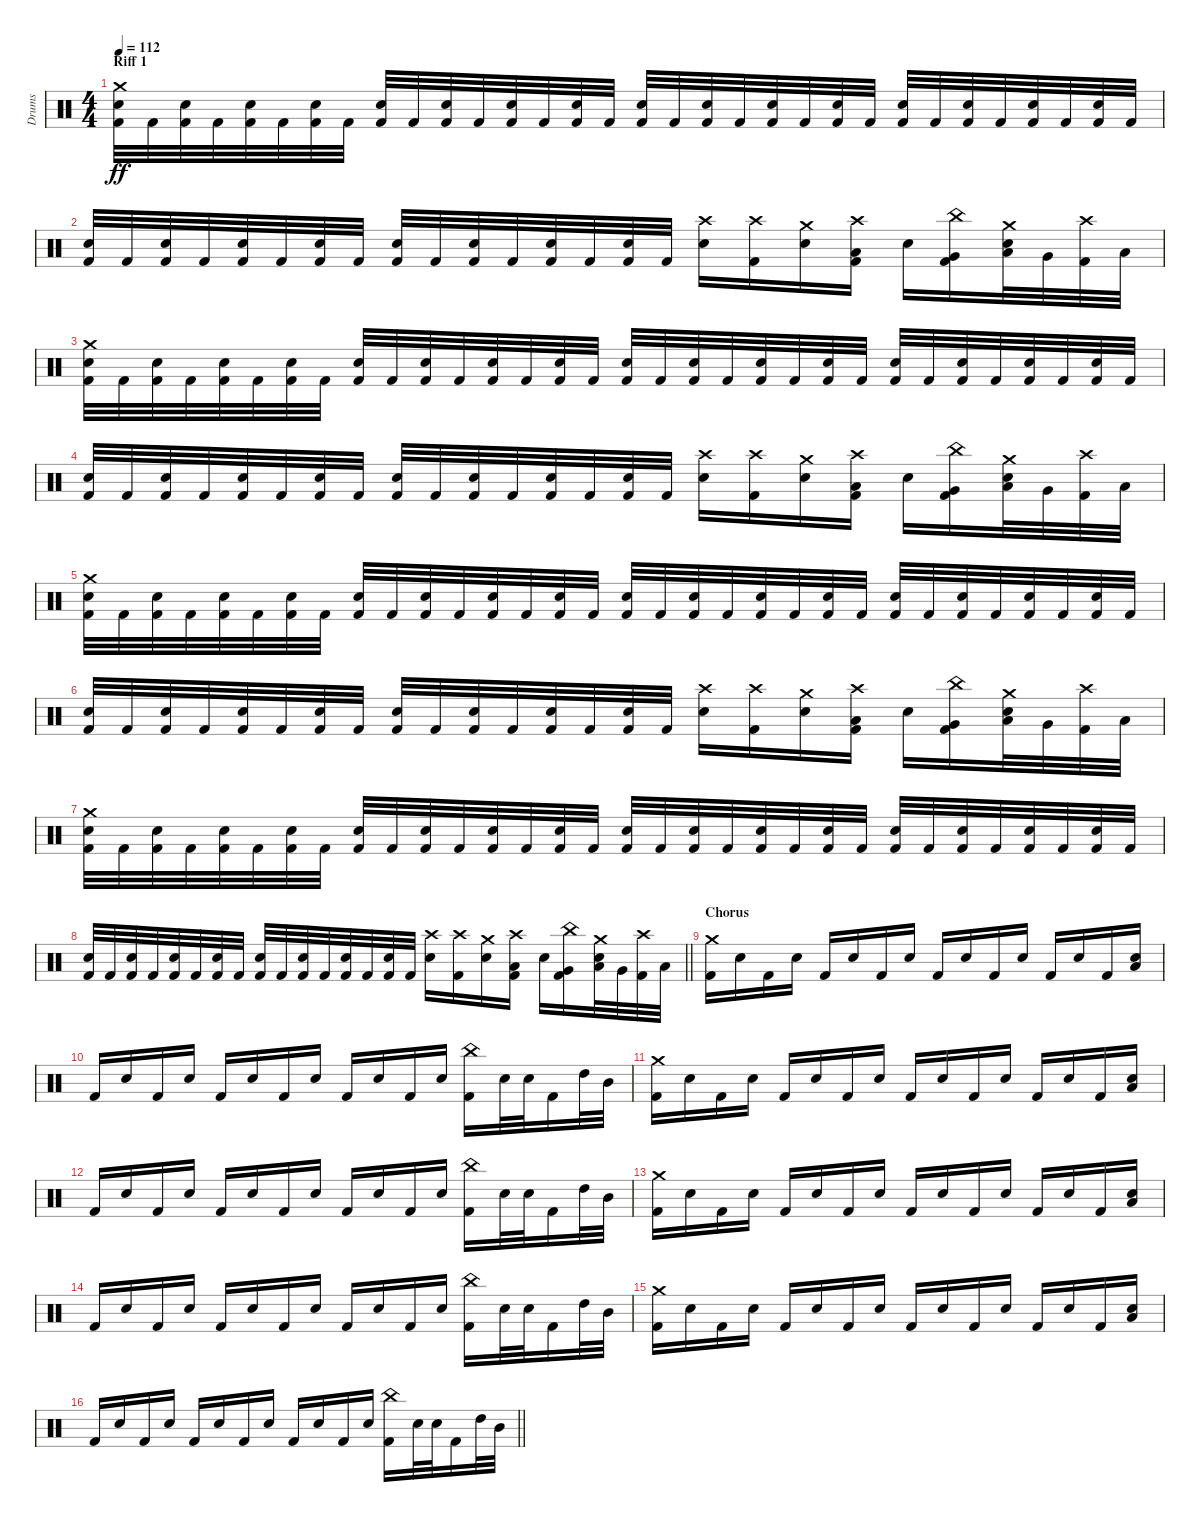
\track ("Drums" "Drums") {instrument percussion}
\staff {score}
\articulation defaults
\ts (4 4)
\section ("" "Riff 1")
\tempo 112
\clef neutral
\ks c
("Crash medium (hit)" "Kick (hit) 2" "Snare (hit) 2").32{dy ff} "Kick (hit) 2".32 ("Kick (hit) 2" "Snare (hit) 2").32 "Kick (hit) 2".32 ("Kick (hit) 2" "Snare (hit) 2").32 "Kick (hit) 2".32 ("Kick (hit) 2" "Snare (hit) 2").32 "Kick (hit) 2".32 ("Kick (hit) 2" "Snare (hit) 2").32 "Kick (hit) 2".32 ("Kick (hit) 2" "Snare (hit) 2").32 "Kick (hit) 2".32 ("Kick (hit) 2" "Snare (hit) 2").32 "Kick (hit) 2".32 ("Kick (hit) 2" "Snare (hit) 2").32 "Kick (hit) 2".32 ("Kick (hit) 2" "Snare (hit) 2").32 "Kick (hit) 2".32 ("Kick (hit) 2" "Snare (hit) 2").32 "Kick (hit) 2".32 ("Kick (hit) 2" "Snare (hit) 2").32 "Kick (hit) 2".32 ("Kick (hit) 2" "Snare (hit) 2").32 "Kick (hit) 2".32 ("Kick (hit) 2" "Snare (hit) 2").32 "Kick (hit) 2".32 ("Kick (hit) 2" "Snare (hit) 2").32 "Kick (hit) 2".32 ("Kick (hit) 2" "Snare (hit) 2").32 "Kick (hit) 2".32 ("Kick (hit) 2" "Snare (hit) 2").32 "Kick (hit) 2".32 |
("Kick (hit) 2" "Snare (hit) 2").32 "Kick (hit) 2".32 ("Kick (hit) 2" "Snare (hit) 2").32 "Kick (hit) 2".32 ("Kick (hit) 2" "Snare (hit) 2").32 "Kick (hit) 2".32 ("Kick (hit) 2" "Snare (hit) 2").32 "Kick (hit) 2".32 ("Kick (hit) 2" "Snare (hit) 2").32 "Kick (hit) 2".32 ("Kick (hit) 2" "Snare (hit) 2").32 "Kick (hit) 2".32 ("Kick (hit) 2" "Snare (hit) 2").32 "Kick (hit) 2".32 ("Kick (hit) 2" "Snare (hit) 2").32 "Kick (hit) 2".32 ("Crash high (hit)" "Snare (hit) 2").16 ("Crash high (hit)" "Kick (hit) 2").16 ("Crash medium (hit)" "Snare (hit) 2").16 ("Crash high (hit)" "Kick (hit) 2" "Low Tom (hit)").16 "Snare (hit) 2".16 ("China (hit)" "Kick (hit) 2" "Very Low Tom (hit)").16 ("Crash medium (hit)" "Snare (hit) 2" "Low Tom (hit)").32 "Very Low Tom (hit)".32 ("Crash high (hit)" "Kick (hit) 2").32 "Low Tom (hit)".32 |
("Crash medium (hit)" "Kick (hit) 2" "Snare (hit) 2").32 "Kick (hit) 2".32 ("Kick (hit) 2" "Snare (hit) 2").32 "Kick (hit) 2".32 ("Kick (hit) 2" "Snare (hit) 2").32 "Kick (hit) 2".32 ("Kick (hit) 2" "Snare (hit) 2").32 "Kick (hit) 2".32 ("Kick (hit) 2" "Snare (hit) 2").32 "Kick (hit) 2".32 ("Kick (hit) 2" "Snare (hit) 2").32 "Kick (hit) 2".32 ("Kick (hit) 2" "Snare (hit) 2").32 "Kick (hit) 2".32 ("Kick (hit) 2" "Snare (hit) 2").32 "Kick (hit) 2".32 ("Kick (hit) 2" "Snare (hit) 2").32 "Kick (hit) 2".32 ("Kick (hit) 2" "Snare (hit) 2").32 "Kick (hit) 2".32 ("Kick (hit) 2" "Snare (hit) 2").32 "Kick (hit) 2".32 ("Kick (hit) 2" "Snare (hit) 2").32 "Kick (hit) 2".32 ("Kick (hit) 2" "Snare (hit) 2").32 "Kick (hit) 2".32 ("Kick (hit) 2" "Snare (hit) 2").32 "Kick (hit) 2".32 ("Kick (hit) 2" "Snare (hit) 2").32 "Kick (hit) 2".32 ("Kick (hit) 2" "Snare (hit) 2").32 "Kick (hit) 2".32 |
("Kick (hit) 2" "Snare (hit) 2").32 "Kick (hit) 2".32 ("Kick (hit) 2" "Snare (hit) 2").32 "Kick (hit) 2".32 ("Kick (hit) 2" "Snare (hit) 2").32 "Kick (hit) 2".32 ("Kick (hit) 2" "Snare (hit) 2").32 "Kick (hit) 2".32 ("Kick (hit) 2" "Snare (hit) 2").32 "Kick (hit) 2".32 ("Kick (hit) 2" "Snare (hit) 2").32 "Kick (hit) 2".32 ("Kick (hit) 2" "Snare (hit) 2").32 "Kick (hit) 2".32 ("Kick (hit) 2" "Snare (hit) 2").32 "Kick (hit) 2".32 ("Crash high (hit)" "Snare (hit) 2").16 ("Crash high (hit)" "Kick (hit) 2").16 ("Crash medium (hit)" "Snare (hit) 2").16 ("Crash high (hit)" "Kick (hit) 2" "Low Tom (hit)").16 "Snare (hit) 2".16 ("China (hit)" "Kick (hit) 2" "Very Low Tom (hit)").16 ("Crash medium (hit)" "Snare (hit) 2" "Low Tom (hit)").32 "Very Low Tom (hit)".32 ("Crash high (hit)" "Kick (hit) 2").32 "Low Tom (hit)".32 |
("Crash medium (hit)" "Kick (hit) 2" "Snare (hit) 2").32 "Kick (hit) 2".32 ("Kick (hit) 2" "Snare (hit) 2").32 "Kick (hit) 2".32 ("Kick (hit) 2" "Snare (hit) 2").32 "Kick (hit) 2".32 ("Kick (hit) 2" "Snare (hit) 2").32 "Kick (hit) 2".32 ("Kick (hit) 2" "Snare (hit) 2").32 "Kick (hit) 2".32 ("Kick (hit) 2" "Snare (hit) 2").32 "Kick (hit) 2".32 ("Kick (hit) 2" "Snare (hit) 2").32 "Kick (hit) 2".32 ("Kick (hit) 2" "Snare (hit) 2").32 "Kick (hit) 2".32 ("Kick (hit) 2" "Snare (hit) 2").32 "Kick (hit) 2".32 ("Kick (hit) 2" "Snare (hit) 2").32 "Kick (hit) 2".32 ("Kick (hit) 2" "Snare (hit) 2").32 "Kick (hit) 2".32 ("Kick (hit) 2" "Snare (hit) 2").32 "Kick (hit) 2".32 ("Kick (hit) 2" "Snare (hit) 2").32 "Kick (hit) 2".32 ("Kick (hit) 2" "Snare (hit) 2").32 "Kick (hit) 2".32 ("Kick (hit) 2" "Snare (hit) 2").32 "Kick (hit) 2".32 ("Kick (hit) 2" "Snare (hit) 2").32 "Kick (hit) 2".32 |
("Kick (hit) 2" "Snare (hit) 2").32 "Kick (hit) 2".32 ("Kick (hit) 2" "Snare (hit) 2").32 "Kick (hit) 2".32 ("Kick (hit) 2" "Snare (hit) 2").32 "Kick (hit) 2".32 ("Kick (hit) 2" "Snare (hit) 2").32 "Kick (hit) 2".32 ("Kick (hit) 2" "Snare (hit) 2").32 "Kick (hit) 2".32 ("Kick (hit) 2" "Snare (hit) 2").32 "Kick (hit) 2".32 ("Kick (hit) 2" "Snare (hit) 2").32 "Kick (hit) 2".32 ("Kick (hit) 2" "Snare (hit) 2").32 "Kick (hit) 2".32 ("Crash high (hit)" "Snare (hit) 2").16 ("Crash high (hit)" "Kick (hit) 2").16 ("Crash medium (hit)" "Snare (hit) 2").16 ("Crash high (hit)" "Kick (hit) 2" "Low Tom (hit)").16 "Snare (hit) 2".16 ("China (hit)" "Kick (hit) 2" "Very Low Tom (hit)").16 ("Crash medium (hit)" "Snare (hit) 2" "Low Tom (hit)").32 "Very Low Tom (hit)".32 ("Crash high (hit)" "Kick (hit) 2").32 "Low Tom (hit)".32 |
("Crash medium (hit)" "Kick (hit) 2" "Snare (hit) 2").32 "Kick (hit) 2".32 ("Kick (hit) 2" "Snare (hit) 2").32 "Kick (hit) 2".32 ("Kick (hit) 2" "Snare (hit) 2").32 "Kick (hit) 2".32 ("Kick (hit) 2" "Snare (hit) 2").32 "Kick (hit) 2".32 ("Kick (hit) 2" "Snare (hit) 2").32 "Kick (hit) 2".32 ("Kick (hit) 2" "Snare (hit) 2").32 "Kick (hit) 2".32 ("Kick (hit) 2" "Snare (hit) 2").32 "Kick (hit) 2".32 ("Kick (hit) 2" "Snare (hit) 2").32 "Kick (hit) 2".32 ("Kick (hit) 2" "Snare (hit) 2").32 "Kick (hit) 2".32 ("Kick (hit) 2" "Snare (hit) 2").32 "Kick (hit) 2".32 ("Kick (hit) 2" "Snare (hit) 2").32 "Kick (hit) 2".32 ("Kick (hit) 2" "Snare (hit) 2").32 "Kick (hit) 2".32 ("Kick (hit) 2" "Snare (hit) 2").32 "Kick (hit) 2".32 ("Kick (hit) 2" "Snare (hit) 2").32 "Kick (hit) 2".32 ("Kick (hit) 2" "Snare (hit) 2").32 "Kick (hit) 2".32 ("Kick (hit) 2" "Snare (hit) 2").32 "Kick (hit) 2".32 |
\barLineRight lightlight
("Kick (hit) 2" "Snare (hit) 2").32 "Kick (hit) 2".32 ("Kick (hit) 2" "Snare (hit) 2").32 "Kick (hit) 2".32 ("Kick (hit) 2" "Snare (hit) 2").32 "Kick (hit) 2".32 ("Kick (hit) 2" "Snare (hit) 2").32 "Kick (hit) 2".32 ("Kick (hit) 2" "Snare (hit) 2").32 "Kick (hit) 2".32 ("Kick (hit) 2" "Snare (hit) 2").32 "Kick (hit) 2".32 ("Kick (hit) 2" "Snare (hit) 2").32 "Kick (hit) 2".32 ("Kick (hit) 2" "Snare (hit) 2").32 "Kick (hit) 2".32 ("Crash high (hit)" "Snare (hit) 2").16 ("Crash high (hit)" "Kick (hit) 2").16 ("Crash medium (hit)" "Snare (hit) 2").16 ("Crash high (hit)" "Kick (hit) 2" "Low Tom (hit)").16 "Snare (hit) 2".16 ("China (hit)" "Kick (hit) 2" "Very Low Tom (hit)").16 ("Crash medium (hit)" "Snare (hit) 2" "Low Tom (hit)").32 "Very Low Tom (hit)".32 ("Crash high (hit)" "Kick (hit) 2").32 "Low Tom (hit)".32 |
\section ("" "Chorus")
("Crash medium (hit)" "Kick (hit) 2").16 "Snare (hit) 2".16 "Kick (hit) 2".16 "Snare (hit) 2".16 "Kick (hit) 2".16 "Snare (hit) 2".16 "Kick (hit) 2".16 "Snare (hit) 2".16 "Kick (hit) 2".16 "Snare (hit) 2".16 "Kick (hit) 2".16 "Snare (hit) 2".16 "Kick (hit) 2".16 "Snare (hit) 2".16 "Kick (hit) 2".16 ("Snare (hit) 2" "Low Tom (hit)").16 |
"Kick (hit) 2".16 "Snare (hit) 2".16 "Kick (hit) 2".16 "Snare (hit) 2".16 "Kick (hit) 2".16 "Snare (hit) 2".16 "Kick (hit) 2".16 "Snare (hit) 2".16 "Kick (hit) 2".16 "Snare (hit) 2".16 "Kick (hit) 2".16 "Snare (hit) 2".16 ("China (hit)" "Kick (hit) 2").16 "Snare (hit) 2".32 "Snare (hit) 2".32 "Kick (hit) 2".16 "High Tom (hit)".32 "Mid Tom (hit)".32 |
("Crash medium (hit)" "Kick (hit) 2").16 "Snare (hit) 2".16 "Kick (hit) 2".16 "Snare (hit) 2".16 "Kick (hit) 2".16 "Snare (hit) 2".16 "Kick (hit) 2".16 "Snare (hit) 2".16 "Kick (hit) 2".16 "Snare (hit) 2".16 "Kick (hit) 2".16 "Snare (hit) 2".16 "Kick (hit) 2".16 "Snare (hit) 2".16 "Kick (hit) 2".16 ("Snare (hit) 2" "Low Tom (hit)").16 |
"Kick (hit) 2".16 "Snare (hit) 2".16 "Kick (hit) 2".16 "Snare (hit) 2".16 "Kick (hit) 2".16 "Snare (hit) 2".16 "Kick (hit) 2".16 "Snare (hit) 2".16 "Kick (hit) 2".16 "Snare (hit) 2".16 "Kick (hit) 2".16 "Snare (hit) 2".16 ("China (hit)" "Kick (hit) 2").16 "Snare (hit) 2".32 "Snare (hit) 2".32 "Kick (hit) 2".16 "High Tom (hit)".32 "Mid Tom (hit)".32 |
("Crash medium (hit)" "Kick (hit) 2").16 "Snare (hit) 2".16 "Kick (hit) 2".16 "Snare (hit) 2".16 "Kick (hit) 2".16 "Snare (hit) 2".16 "Kick (hit) 2".16 "Snare (hit) 2".16 "Kick (hit) 2".16 "Snare (hit) 2".16 "Kick (hit) 2".16 "Snare (hit) 2".16 "Kick (hit) 2".16 "Snare (hit) 2".16 "Kick (hit) 2".16 ("Snare (hit) 2" "Low Tom (hit)").16 |
"Kick (hit) 2".16 "Snare (hit) 2".16 "Kick (hit) 2".16 "Snare (hit) 2".16 "Kick (hit) 2".16 "Snare (hit) 2".16 "Kick (hit) 2".16 "Snare (hit) 2".16 "Kick (hit) 2".16 "Snare (hit) 2".16 "Kick (hit) 2".16 "Snare (hit) 2".16 ("China (hit)" "Kick (hit) 2").16 "Snare (hit) 2".32 "Snare (hit) 2".32 "Kick (hit) 2".16 "High Tom (hit)".32 "Mid Tom (hit)".32 |
("Crash medium (hit)" "Kick (hit) 2").16 "Snare (hit) 2".16 "Kick (hit) 2".16 "Snare (hit) 2".16 "Kick (hit) 2".16 "Snare (hit) 2".16 "Kick (hit) 2".16 "Snare (hit) 2".16 "Kick (hit) 2".16 "Snare (hit) 2".16 "Kick (hit) 2".16 "Snare (hit) 2".16 "Kick (hit) 2".16 "Snare (hit) 2".16 "Kick (hit) 2".16 ("Snare (hit) 2" "Low Tom (hit)").16 |
\barLineRight lightlight "Kick (hit) 2".16 "Snare (hit) 2".16 "Kick (hit) 2".16 "Snare (hit) 2".16 "Kick (hit) 2".16 "Snare (hit) 2".16 "Kick (hit) 2".16 "Snare (hit) 2".16 "Kick (hit) 2".16 "Snare (hit) 2".16 "Kick (hit) 2".16 "Snare (hit) 2".16
("China (hit)" "Kick (hit) 2").16 "Snare (hit) 2".32 "Snare (hit) 2".32 "Kick (hit) 2".16 "High Tom (hit)".32 "Mid Tom (hit)".32
